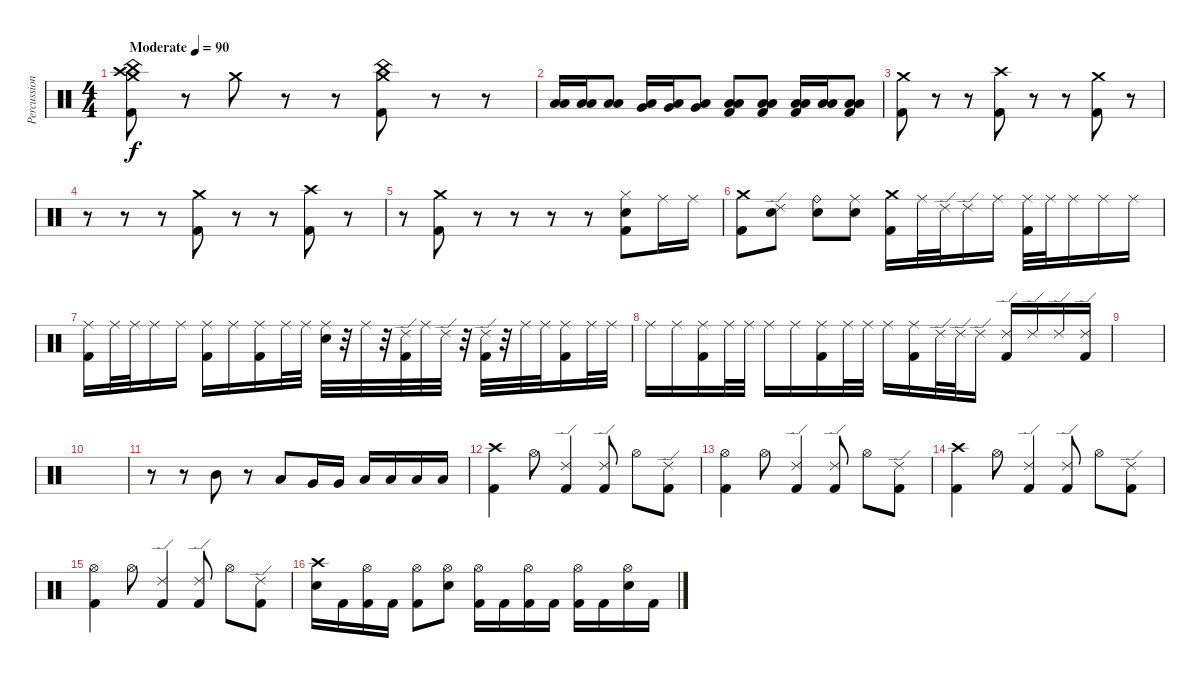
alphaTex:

\track ("Percussion" "Percussion") {instrument percussion}
\staff {score}
\articulation defaults
\ts (4 4)
\tempo (90 "Moderate")
\clef neutral
\ks c
("Crash high (hit)" "China (hit)" "Crash medium (hit)" "Kick (hit) 2").8{dy f} r.8 "Crash medium (hit)".8 r.8 r.8 ("Crash medium (hit)" "China (hit)" "Kick (hit) 2").8 r.8 r.8 |
("Low Tom (hit)" "Low Floor Tom (hit)").16{balance 0} ("Low Tom (hit)" "Low Floor Tom (hit)").16{balance 16} ("Low Tom (hit)" "Low Floor Tom (hit)").8{balance 0} ("Very Low Tom (hit)" "Low Floor Tom (hit)").16{balance 0} ("Very Low Tom (hit)" "Low Floor Tom (hit)").16{balance 16} ("Very Low Tom (hit)" "Low Floor Tom (hit)").8{balance 0} ("Low Floor Tom (hit)" "Low Floor Tom (hit)" "Kick (hit) 2").8{balance 0} ("Low Floor Tom (hit)" "Low Floor Tom (hit)" "Kick (hit) 2").8{balance 5} ("Low Floor Tom (hit)" "Low Floor Tom (hit)" "Kick (hit) 2").16 ("Low Floor Tom (hit)" "Low Floor Tom (hit)").16 ("Low Floor Tom (hit)" "Low Floor Tom (hit)" "Kick (hit) 2").8 |
("Crash medium (hit)" "Kick (hit) 2").8 r.8 r.8 ("Crash high (hit)" "Kick (hit) 2").8 r.8 r.8 ("Crash medium (hit)" "Kick (hit) 2").8 r.8 |
r.8 r.8 r.8 ("Crash medium (hit)" "Kick (hit) 2").8{balance 0} r.8 r.8 ("Crash high (hit)" "Kick (hit) 2").8{balance 16} r.8 |
r.8 ("Crash medium (hit)" "Kick (hit) 2").8{balance 8} r.8 r.8 r.8 r.8 ("Hi-Hat (closed)" "Snare (hit) 2" "Kick (hit) 2").8 "Ride (middle)".16 "Ride (middle)".16 |
("Crash medium (hit)" "Kick (hit) 2").8 ("Ride (edge) 2" "Snare (hit) 2").8 ("Ride (bell)" "Snare (hit) 2").8 ("Ride (middle)" "Snare (hit) 2").8 ("Crash medium (hit)" "Kick (hit) 2").16 "Ride (middle)".32 "Ride (edge) 2".32 "Ride (edge) 2".16 "Ride (middle)".16 ("Ride (middle)" "Kick (hit) 2").32 "Ride (middle)".32 "Ride (middle)".16 "Ride (middle)".16 "Ride (middle)".16 |
("Ride (middle)" "Kick (hit) 2").16 "Ride (middle)".32 "Ride (middle)".32 "Ride (middle)".16 "Ride (middle)".16 ("Ride (middle)" "Kick (hit) 2").16 "Ride (middle)".16 ("Ride (middle)" "Kick (hit) 2").16 "Ride (middle)".32 "Ride (middle)".32 ("Ride (middle)" "Snare (hit) 2").32 r.32 "Ride (middle)".32 r.32 ("Ride (edge) 2" "Kick (hit) 2").32 "Ride (middle)".32 "Ride (edge) 2".32 r.32 ("Ride (edge) 2" "Kick (hit) 2").32 r.32 "Ride (middle)".32 "Ride (middle)".32 ("Ride (middle)" "Kick (hit) 2").16 "Ride (middle)".32 "Ride (middle)".32 |
"Ride (middle)".16 "Ride (middle)".16 ("Ride (middle)" "Kick (hit) 2").16 "Ride (middle)".32 "Ride (middle)".32 "Ride (middle)".16 "Ride (middle)".16 ("Ride (middle)" "Kick (hit) 2").16 "Ride (middle)".32 "Ride (middle)".32 "Ride (middle)".16 ("Ride (middle)" "Kick (hit) 2").16 "Ride (edge) 2".32 "Ride (edge) 2".32 "Ride (edge) 2".16 ("Ride (edge) 2" "Kick (hit) 2").16 "Ride (edge) 2".16 "Ride (edge) 2".16 ("Ride (edge) 2" "Kick (hit) 2").16 |
|
|
r.8 r.8 "Mid Tom (hit)".8 r.8 "Low Tom (hit)".8 "Very Low Tom (hit)".16 "Very Low Tom (hit)".16 "Low Floor Tom (hit)".16 "Low Floor Tom (hit)".16 "Low Floor Tom (hit)".16 "Low Floor Tom (hit)".16 |
("Crash high (hit)" "Kick (hit) 2").4 "Hi-Hat (open)".8 ("Ride (edge) 2" "Kick (hit) 2").4 ("Ride (edge) 2" "Kick (hit) 2").8 "Hi-Hat (open)".8 ("Ride (edge) 2" "Kick (hit) 2").8 |
("Hi-Hat (open)" "Kick (hit) 2").4 "Hi-Hat (open)".8 ("Ride (edge) 2" "Kick (hit) 2").4 ("Ride (edge) 2" "Kick (hit) 2").8 "Hi-Hat (open)".8 ("Ride (edge) 2" "Kick (hit) 2").8 |
("Crash high (hit)" "Kick (hit) 2").4 "Hi-Hat (open)".8 ("Ride (edge) 2" "Kick (hit) 2").4 ("Ride (edge) 2" "Kick (hit) 2").8 "Hi-Hat (open)".8 ("Ride (edge) 2" "Kick (hit) 2").8 |
("Hi-Hat (open)" "Kick (hit) 2").4 "Hi-Hat (open)".8 ("Ride (edge) 2" "Kick (hit) 2").4 ("Ride (edge) 2" "Kick (hit) 2").8 "Hi-Hat (open)".8 ("Ride (edge) 2" "Kick (hit) 2").8 |
("Crash high (hit)" "Snare (hit) 2").16 "Kick (hit) 2".16 ("Hi-Hat (open)" "Kick (hit) 2").16 "Kick (hit) 2".16 ("Hi-Hat (open)" "Kick (hit) 2").8 ("Hi-Hat (open)" "Snare (hit) 2").8 ("Hi-Hat (open)" "Kick (hit) 2").16 "Kick (hit) 2".16 ("Hi-Hat (open)" "Kick (hit) 2").16 "Kick (hit) 2".16 ("Hi-Hat (open)" "Kick (hit) 2").16 "Kick (hit) 2".16 ("Hi-Hat (open)" "Snare (hit) 2").16 "Kick (hit) 2".16
